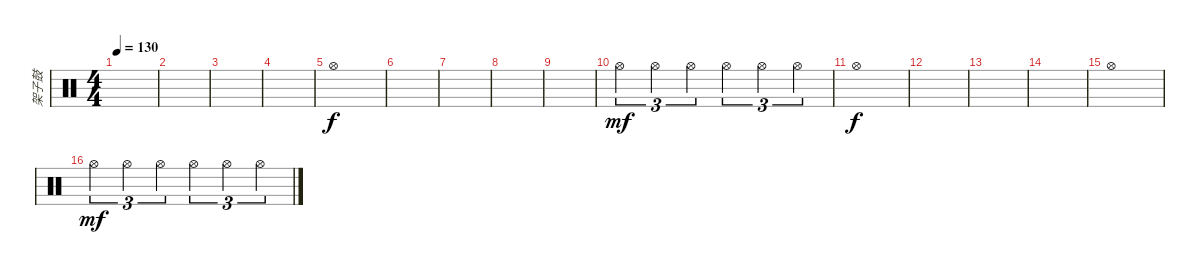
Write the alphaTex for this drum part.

\track ("架子鼓" "架子鼓") {instrument percussion}
\staff {score}
\articulation defaults
\ts (4 4)
\tempo 130
\clef neutral
\ks c
|
|
|
|
"Hi-Hat (open)".1 |
|
|
|
|
"Hi-Hat (open)".4{tu (3 2) dy mf} "Hi-Hat (open)".4{tu (3 2)} "Hi-Hat (open)".4{tu (3 2)} "Hi-Hat (open)".4{tu (3 2)} "Hi-Hat (open)".4{tu (3 2)} "Hi-Hat (open)".4{tu (3 2)} |
"Hi-Hat (open)".1{dy f} |
|
|
|
"Hi-Hat (open)".1 |
"Hi-Hat (open)".4{tu (3 2) dy mf} "Hi-Hat (open)".4{tu (3 2)} "Hi-Hat (open)".4{tu (3 2)} "Hi-Hat (open)".4{tu (3 2)} "Hi-Hat (open)".4{tu (3 2)} "Hi-Hat (open)".4{tu (3 2)}
